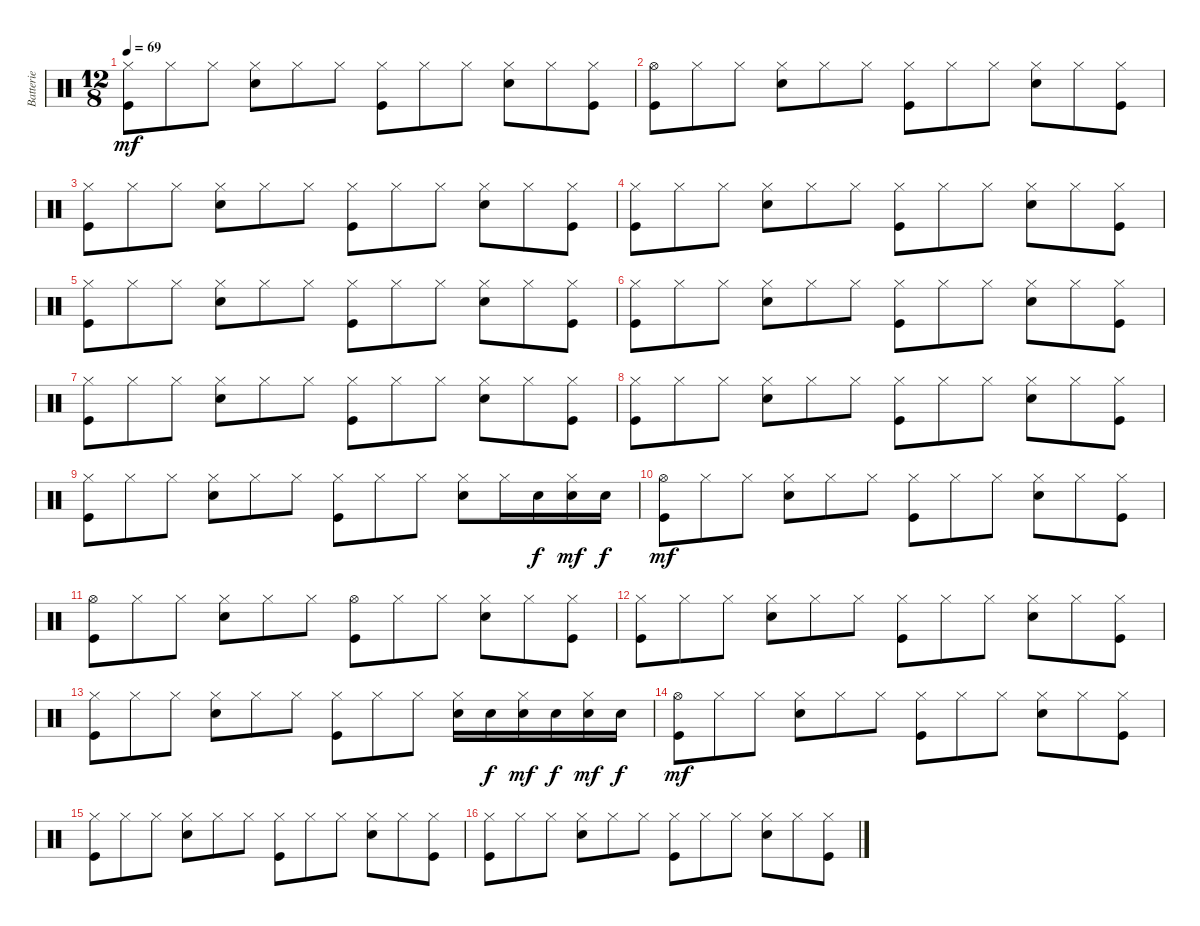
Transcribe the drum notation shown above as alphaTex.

\track ("Batterie" "Batterie") {instrument percussion}
\staff {score}
\articulation defaults
\ts (12 8)
\tempo 69
\clef neutral
\ks c
("Hi-Hat (closed)" "Kick (hit)").8{dy mf} "Hi-Hat (closed)".8 "Hi-Hat (closed)".8 ("Hi-Hat (closed)" "Snare (hit) 2").8 "Hi-Hat (closed)".8 "Hi-Hat (closed)".8 ("Hi-Hat (closed)" "Kick (hit)").8 "Hi-Hat (closed)".8 "Hi-Hat (closed)".8 ("Hi-Hat (closed)" "Snare (hit) 2").8 "Hi-Hat (closed)".8 ("Hi-Hat (closed)" "Kick (hit)").8 |
("Hi-Hat (open)" "Kick (hit)").8 "Hi-Hat (closed)".8 "Hi-Hat (closed)".8 ("Hi-Hat (closed)" "Snare (hit) 2").8 "Hi-Hat (closed)".8 "Hi-Hat (closed)".8 ("Hi-Hat (closed)" "Kick (hit)").8 "Hi-Hat (closed)".8 "Hi-Hat (closed)".8 ("Hi-Hat (closed)" "Snare (hit) 2").8 "Hi-Hat (closed)".8 ("Hi-Hat (closed)" "Kick (hit)").8 |
("Hi-Hat (closed)" "Kick (hit)").8 "Hi-Hat (closed)".8 "Hi-Hat (closed)".8 ("Hi-Hat (closed)" "Snare (hit) 2").8 "Hi-Hat (closed)".8 "Hi-Hat (closed)".8 ("Hi-Hat (closed)" "Kick (hit)").8 "Hi-Hat (closed)".8 "Hi-Hat (closed)".8 ("Hi-Hat (closed)" "Snare (hit) 2").8 "Hi-Hat (closed)".8 ("Hi-Hat (closed)" "Kick (hit)").8 |
("Hi-Hat (closed)" "Kick (hit)").8 "Hi-Hat (closed)".8 "Hi-Hat (closed)".8 ("Hi-Hat (closed)" "Snare (hit) 2").8 "Hi-Hat (closed)".8 "Hi-Hat (closed)".8 ("Hi-Hat (closed)" "Kick (hit)").8 "Hi-Hat (closed)".8 "Hi-Hat (closed)".8 ("Hi-Hat (closed)" "Snare (hit) 2").8 "Hi-Hat (closed)".8 ("Hi-Hat (closed)" "Kick (hit)").8 |
("Hi-Hat (closed)" "Kick (hit)").8 "Hi-Hat (closed)".8 "Hi-Hat (closed)".8 ("Hi-Hat (closed)" "Snare (hit) 2").8 "Hi-Hat (closed)".8 "Hi-Hat (closed)".8 ("Hi-Hat (closed)" "Kick (hit)").8 "Hi-Hat (closed)".8 "Hi-Hat (closed)".8 ("Hi-Hat (closed)" "Snare (hit) 2").8 "Hi-Hat (closed)".8 ("Hi-Hat (closed)" "Kick (hit)").8 |
("Hi-Hat (closed)" "Kick (hit)").8 "Hi-Hat (closed)".8 "Hi-Hat (closed)".8 ("Hi-Hat (closed)" "Snare (hit) 2").8 "Hi-Hat (closed)".8 "Hi-Hat (closed)".8 ("Hi-Hat (closed)" "Kick (hit)").8 "Hi-Hat (closed)".8 "Hi-Hat (closed)".8 ("Hi-Hat (closed)" "Snare (hit) 2").8 "Hi-Hat (closed)".8 ("Hi-Hat (closed)" "Kick (hit)").8 |
("Hi-Hat (closed)" "Kick (hit)").8 "Hi-Hat (closed)".8 "Hi-Hat (closed)".8 ("Hi-Hat (closed)" "Snare (hit) 2").8 "Hi-Hat (closed)".8 "Hi-Hat (closed)".8 ("Hi-Hat (closed)" "Kick (hit)").8 "Hi-Hat (closed)".8 "Hi-Hat (closed)".8 ("Hi-Hat (closed)" "Snare (hit) 2").8 "Hi-Hat (closed)".8 ("Hi-Hat (closed)" "Kick (hit)").8 |
("Hi-Hat (closed)" "Kick (hit)").8 "Hi-Hat (closed)".8 "Hi-Hat (closed)".8 ("Hi-Hat (closed)" "Snare (hit) 2").8 "Hi-Hat (closed)".8 "Hi-Hat (closed)".8 ("Hi-Hat (closed)" "Kick (hit)").8 "Hi-Hat (closed)".8 "Hi-Hat (closed)".8 ("Hi-Hat (closed)" "Snare (hit) 2").8 "Hi-Hat (closed)".8 ("Hi-Hat (closed)" "Kick (hit)").8 |
("Hi-Hat (closed)" "Kick (hit)").8 "Hi-Hat (closed)".8 "Hi-Hat (closed)".8 ("Hi-Hat (closed)" "Snare (hit) 2").8 "Hi-Hat (closed)".8 "Hi-Hat (closed)".8 ("Hi-Hat (closed)" "Kick (hit)").8 "Hi-Hat (closed)".8 "Hi-Hat (closed)".8 ("Hi-Hat (closed)" "Snare (hit) 2").8 "Hi-Hat (closed)".16 "Snare (hit) 2".16{dy f} ("Hi-Hat (closed)" "Snare (hit) 2").16{dy mf} "Snare (hit) 2".16{dy f} |
("Hi-Hat (open)" "Kick (hit)").8{dy mf} "Hi-Hat (closed)".8 "Hi-Hat (closed)".8 ("Hi-Hat (closed)" "Snare (hit) 2").8 "Hi-Hat (closed)".8 "Hi-Hat (closed)".8 ("Hi-Hat (closed)" "Kick (hit)").8 "Hi-Hat (closed)".8 "Hi-Hat (closed)".8 ("Hi-Hat (closed)" "Snare (hit) 2").8 "Hi-Hat (closed)".8 ("Hi-Hat (closed)" "Kick (hit)").8 |
("Hi-Hat (open)" "Kick (hit)").8 "Hi-Hat (closed)".8 "Hi-Hat (closed)".8 ("Hi-Hat (closed)" "Snare (hit) 2").8 "Hi-Hat (closed)".8 "Hi-Hat (closed)".8 ("Hi-Hat (open)" "Kick (hit)").8 "Hi-Hat (closed)".8 "Hi-Hat (closed)".8 ("Hi-Hat (closed)" "Snare (hit) 2").8 "Hi-Hat (closed)".8 ("Hi-Hat (closed)" "Kick (hit)").8 |
("Hi-Hat (closed)" "Kick (hit)").8 "Hi-Hat (closed)".8 "Hi-Hat (closed)".8 ("Hi-Hat (closed)" "Snare (hit) 2").8 "Hi-Hat (closed)".8 "Hi-Hat (closed)".8 ("Hi-Hat (closed)" "Kick (hit)").8 "Hi-Hat (closed)".8 "Hi-Hat (closed)".8 ("Hi-Hat (closed)" "Snare (hit) 2").8 "Hi-Hat (closed)".8 ("Hi-Hat (closed)" "Kick (hit)").8 |
("Hi-Hat (closed)" "Kick (hit)").8 "Hi-Hat (closed)".8 "Hi-Hat (closed)".8 ("Hi-Hat (closed)" "Snare (hit) 2").8 "Hi-Hat (closed)".8 "Hi-Hat (closed)".8 ("Hi-Hat (closed)" "Kick (hit)").8 "Hi-Hat (closed)".8 "Hi-Hat (closed)".8 ("Hi-Hat (closed)" "Snare (hit) 2").16 "Snare (hit) 2".16{dy f} ("Hi-Hat (closed)" "Snare (hit) 2").16{dy mf} "Snare (hit) 2".16{dy f} ("Hi-Hat (closed)" "Snare (hit) 2").16{dy mf} "Snare (hit) 2".16{dy f} |
("Hi-Hat (open)" "Kick (hit)").8{dy mf} "Hi-Hat (closed)".8 "Hi-Hat (closed)".8 ("Hi-Hat (closed)" "Snare (hit) 2").8 "Hi-Hat (closed)".8 "Hi-Hat (closed)".8 ("Hi-Hat (closed)" "Kick (hit)").8 "Hi-Hat (closed)".8 "Hi-Hat (closed)".8 ("Hi-Hat (closed)" "Snare (hit) 2").8 "Hi-Hat (closed)".8 ("Hi-Hat (closed)" "Kick (hit)").8 |
("Hi-Hat (closed)" "Kick (hit)").8 "Hi-Hat (closed)".8 "Hi-Hat (closed)".8 ("Hi-Hat (closed)" "Snare (hit) 2").8 "Hi-Hat (closed)".8 "Hi-Hat (closed)".8 ("Hi-Hat (closed)" "Kick (hit)").8 "Hi-Hat (closed)".8 "Hi-Hat (closed)".8 ("Hi-Hat (closed)" "Snare (hit) 2").8 "Hi-Hat (closed)".8 ("Hi-Hat (closed)" "Kick (hit)").8 |
("Hi-Hat (closed)" "Kick (hit)").8 "Hi-Hat (closed)".8 "Hi-Hat (closed)".8 ("Hi-Hat (closed)" "Snare (hit) 2").8 "Hi-Hat (closed)".8 "Hi-Hat (closed)".8 ("Hi-Hat (closed)" "Kick (hit)").8 "Hi-Hat (closed)".8 "Hi-Hat (closed)".8 ("Hi-Hat (closed)" "Snare (hit) 2").8 "Hi-Hat (closed)".8 ("Hi-Hat (closed)" "Kick (hit)").8
